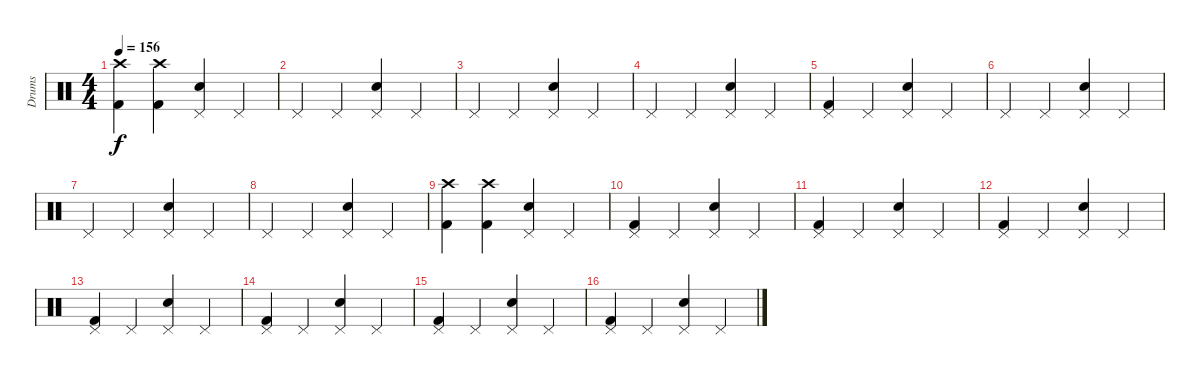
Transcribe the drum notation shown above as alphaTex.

\track ("Drums" "Drums") {instrument percussion}
\staff {score}
\articulation defaults
\ts (4 4)
\tempo 156
\clef neutral
\ks c
("Crash high (hit)" "Kick (hit) 2").4{dy f} ("Crash high (hit)" "Kick (hit) 2").4 ("Pedal Hi-Hat (hit)" "Electric Snare (hit)").4 "Pedal Hi-Hat (hit)".4 |
"Pedal Hi-Hat (hit)".4 "Pedal Hi-Hat (hit)".4 ("Pedal Hi-Hat (hit)" "Electric Snare (hit)").4 "Pedal Hi-Hat (hit)".4 |
"Pedal Hi-Hat (hit)".4 "Pedal Hi-Hat (hit)".4 ("Pedal Hi-Hat (hit)" "Electric Snare (hit)").4 "Pedal Hi-Hat (hit)".4 |
"Pedal Hi-Hat (hit)".4 "Pedal Hi-Hat (hit)".4 ("Pedal Hi-Hat (hit)" "Electric Snare (hit)").4 "Pedal Hi-Hat (hit)".4 |
("Pedal Hi-Hat (hit)" "Kick (hit) 2").4 "Pedal Hi-Hat (hit)".4 ("Pedal Hi-Hat (hit)" "Electric Snare (hit)").4 "Pedal Hi-Hat (hit)".4 |
"Pedal Hi-Hat (hit)".4 "Pedal Hi-Hat (hit)".4 ("Pedal Hi-Hat (hit)" "Electric Snare (hit)").4 "Pedal Hi-Hat (hit)".4 |
"Pedal Hi-Hat (hit)".4 "Pedal Hi-Hat (hit)".4 ("Pedal Hi-Hat (hit)" "Electric Snare (hit)").4 "Pedal Hi-Hat (hit)".4 |
"Pedal Hi-Hat (hit)".4 "Pedal Hi-Hat (hit)".4 ("Pedal Hi-Hat (hit)" "Electric Snare (hit)").4 "Pedal Hi-Hat (hit)".4 |
("Crash high (hit)" "Kick (hit) 2").4 ("Crash high (hit)" "Kick (hit) 2").4 ("Pedal Hi-Hat (hit)" "Electric Snare (hit)").4 "Pedal Hi-Hat (hit)".4 |
("Pedal Hi-Hat (hit)" "Kick (hit) 2").4 "Pedal Hi-Hat (hit)".4 ("Pedal Hi-Hat (hit)" "Electric Snare (hit)").4 "Pedal Hi-Hat (hit)".4 |
("Pedal Hi-Hat (hit)" "Kick (hit) 2").4 "Pedal Hi-Hat (hit)".4 ("Pedal Hi-Hat (hit)" "Electric Snare (hit)").4 "Pedal Hi-Hat (hit)".4 |
("Pedal Hi-Hat (hit)" "Kick (hit) 2").4 "Pedal Hi-Hat (hit)".4 ("Pedal Hi-Hat (hit)" "Electric Snare (hit)").4 "Pedal Hi-Hat (hit)".4 |
("Pedal Hi-Hat (hit)" "Kick (hit) 2").4 "Pedal Hi-Hat (hit)".4 ("Pedal Hi-Hat (hit)" "Electric Snare (hit)").4 "Pedal Hi-Hat (hit)".4 |
("Pedal Hi-Hat (hit)" "Kick (hit) 2").4 "Pedal Hi-Hat (hit)".4 ("Pedal Hi-Hat (hit)" "Electric Snare (hit)").4 "Pedal Hi-Hat (hit)".4 |
("Pedal Hi-Hat (hit)" "Kick (hit) 2").4 "Pedal Hi-Hat (hit)".4 ("Pedal Hi-Hat (hit)" "Electric Snare (hit)").4 "Pedal Hi-Hat (hit)".4 |
("Pedal Hi-Hat (hit)" "Kick (hit) 2").4 "Pedal Hi-Hat (hit)".4 ("Pedal Hi-Hat (hit)" "Electric Snare (hit)").4 "Pedal Hi-Hat (hit)".4
